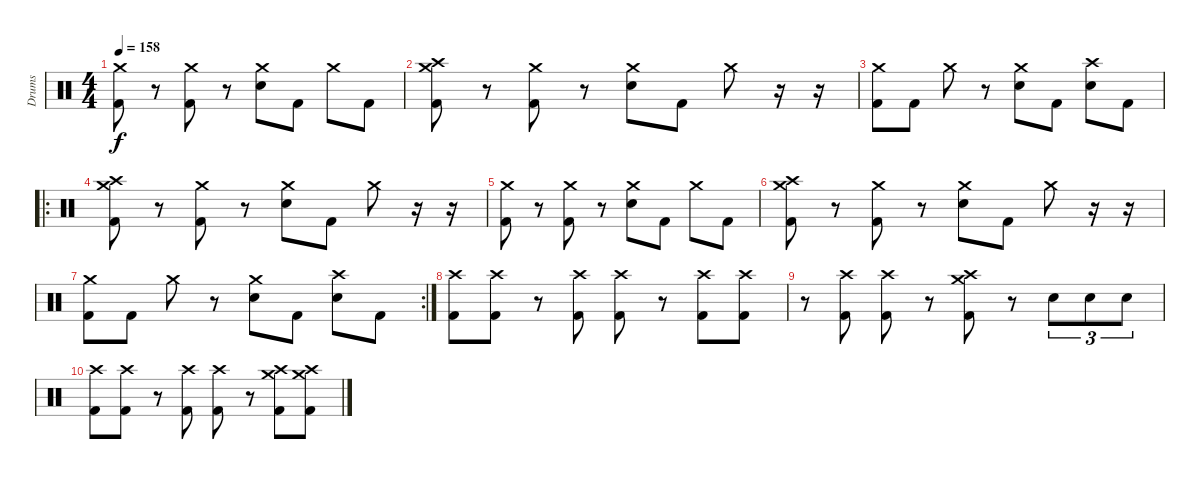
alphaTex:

\track ("Drums" "Drums") {instrument percussion}
\staff {score}
\articulation defaults
\ts (4 4)
\tempo 158
\clef neutral
\ks c
("Crash medium (hit)" "Kick (hit) 2").8{dy f} r.8 ("Crash medium (hit)" "Kick (hit) 2").8 r.8 ("Crash medium (hit)" "Snare (hit) 2").8 "Kick (hit) 2".8 "Crash medium (hit)".8 "Kick (hit) 2".8 |
("Crash high (hit)" "Crash medium (hit)" "Kick (hit) 2").8 r.8 ("Crash medium (hit)" "Kick (hit) 2").8 r.8 ("Crash medium (hit)" "Snare (hit) 2").8 "Kick (hit) 2".8 "Crash medium (hit)".8 r.16 r.16 |
("Crash medium (hit)" "Kick (hit) 2").8 "Kick (hit) 2".8 "Crash medium (hit)".8 r.8 ("Crash medium (hit)" "Snare (hit) 2").8 "Kick (hit) 2".8 ("Crash high (hit)" "Snare (hit) 2").8 "Kick (hit) 2".8 |
\ro
("Crash high (hit)" "Crash medium (hit)" "Kick (hit) 2").8 r.8 ("Crash medium (hit)" "Kick (hit) 2").8 r.8 ("Crash medium (hit)" "Snare (hit) 2").8 "Kick (hit) 2".8 "Crash medium (hit)".8 r.16 r.16 |
("Crash medium (hit)" "Kick (hit) 2").8 r.8 ("Crash medium (hit)" "Kick (hit) 2").8 r.8 ("Crash medium (hit)" "Snare (hit) 2").8 "Kick (hit) 2".8 "Crash medium (hit)".8 "Kick (hit) 2".8 |
("Crash high (hit)" "Crash medium (hit)" "Kick (hit) 2").8 r.8 ("Crash medium (hit)" "Kick (hit) 2").8 r.8 ("Crash medium (hit)" "Snare (hit) 2").8 "Kick (hit) 2".8 "Crash medium (hit)".8 r.16 r.16 |
\rc 2
("Crash medium (hit)" "Kick (hit) 2").8 "Kick (hit) 2".8 "Crash medium (hit)".8 r.8 ("Crash medium (hit)" "Snare (hit) 2").8 "Kick (hit) 2".8 ("Crash high (hit)" "Snare (hit) 2").8 "Kick (hit) 2".8 |
("Crash high (hit)" "Kick (hit) 2").8 ("Crash high (hit)" "Kick (hit) 2").8 r.8 ("Crash high (hit)" "Kick (hit) 2").8 ("Crash high (hit)" "Kick (hit) 2").8 r.8 ("Crash high (hit)" "Kick (hit) 2").8 ("Crash high (hit)" "Kick (hit) 2").8 |
r.8 ("Crash high (hit)" "Kick (hit) 2").8 ("Crash high (hit)" "Kick (hit) 2").8 r.8 ("Crash high (hit)" "Crash medium (hit)" "Kick (hit) 2").8 r.8 "Snare (hit) 2".8{tu (3 2)} "Snare (hit) 2".8{tu (3 2)} "Snare (hit) 2".8{tu (3 2)} |
("Crash high (hit)" "Kick (hit) 2").8 ("Crash high (hit)" "Kick (hit) 2").8 r.8 ("Crash high (hit)" "Kick (hit) 2").8 ("Crash high (hit)" "Kick (hit) 2").8 r.8 ("Crash medium (hit)" "Crash high (hit)" "Kick (hit) 2").8 ("Crash medium (hit)" "Crash high (hit)" "Kick (hit) 2").8
